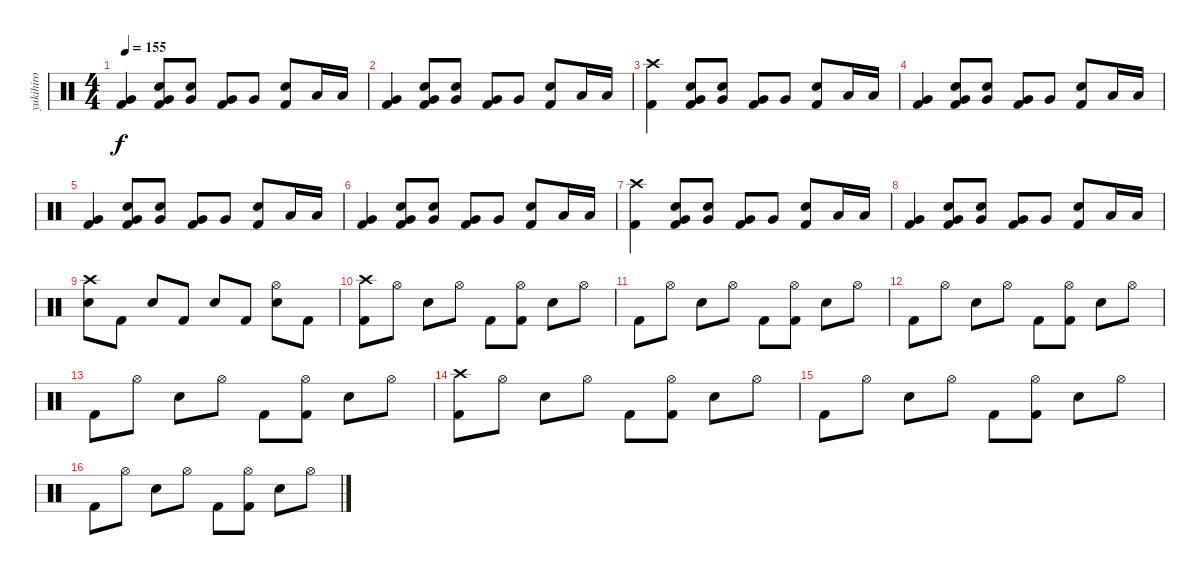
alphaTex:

\track ("yukihiro" "yukihiro") {instrument percussion}
\staff {score}
\articulation defaults
\ts (4 4)
\tempo 155
\clef neutral
\ks c
("Very Low Tom (hit)" "Kick (hit) 2").4{dy f} ("Very Low Tom (hit)" "Snare (hit) 2" "Kick (hit) 2").8 ("Very Low Tom (hit)" "Snare (hit) 2").8 ("Very Low Tom (hit)" "Kick (hit) 2").8 "Very Low Tom (hit)".8 ("Snare (hit) 2" "Kick (hit) 2").8 "Low Tom (hit)".16 "Low Floor Tom (hit)".16 |
("Very Low Tom (hit)" "Kick (hit) 2").4 ("Very Low Tom (hit)" "Snare (hit) 2" "Kick (hit) 2").8 ("Very Low Tom (hit)" "Snare (hit) 2").8 ("Very Low Tom (hit)" "Kick (hit) 2").8 "Very Low Tom (hit)".8 ("Snare (hit) 2" "Kick (hit) 2").8 "Low Tom (hit)".16 "Low Floor Tom (hit)".16 |
("Crash high (hit)" "Kick (hit) 2").4 ("Very Low Tom (hit)" "Snare (hit) 2" "Kick (hit) 2").8 ("Very Low Tom (hit)" "Snare (hit) 2").8 ("Very Low Tom (hit)" "Kick (hit) 2").8 "Very Low Tom (hit)".8 ("Snare (hit) 2" "Kick (hit) 2").8 "Low Tom (hit)".16 "Low Floor Tom (hit)".16 |
("Very Low Tom (hit)" "Kick (hit) 2").4 ("Very Low Tom (hit)" "Snare (hit) 2" "Kick (hit) 2").8 ("Very Low Tom (hit)" "Snare (hit) 2").8 ("Very Low Tom (hit)" "Kick (hit) 2").8 "Very Low Tom (hit)".8 ("Snare (hit) 2" "Kick (hit) 2").8 "Low Tom (hit)".16 "Low Floor Tom (hit)".16 |
("Very Low Tom (hit)" "Kick (hit) 2").4 ("Very Low Tom (hit)" "Snare (hit) 2" "Kick (hit) 2").8 ("Very Low Tom (hit)" "Snare (hit) 2").8 ("Very Low Tom (hit)" "Kick (hit) 2").8 "Very Low Tom (hit)".8 ("Snare (hit) 2" "Kick (hit) 2").8 "Low Tom (hit)".16 "Low Floor Tom (hit)".16 |
("Very Low Tom (hit)" "Kick (hit) 2").4 ("Very Low Tom (hit)" "Snare (hit) 2" "Kick (hit) 2").8 ("Very Low Tom (hit)" "Snare (hit) 2").8 ("Very Low Tom (hit)" "Kick (hit) 2").8 "Very Low Tom (hit)".8 ("Snare (hit) 2" "Kick (hit) 2").8 "Low Tom (hit)".16 "Low Floor Tom (hit)".16 |
("Crash high (hit)" "Kick (hit) 2").4 ("Very Low Tom (hit)" "Snare (hit) 2" "Kick (hit) 2").8 ("Very Low Tom (hit)" "Snare (hit) 2").8 ("Very Low Tom (hit)" "Kick (hit) 2").8 "Very Low Tom (hit)".8 ("Snare (hit) 2" "Kick (hit) 2").8 "Low Tom (hit)".16 "Low Floor Tom (hit)".16 |
("Very Low Tom (hit)" "Kick (hit) 2").4 ("Very Low Tom (hit)" "Snare (hit) 2" "Kick (hit) 2").8 ("Very Low Tom (hit)" "Snare (hit) 2").8 ("Very Low Tom (hit)" "Kick (hit) 2").8 "Very Low Tom (hit)".8 ("Snare (hit) 2" "Kick (hit) 2").8 "Low Tom (hit)".16 "Low Floor Tom (hit)".16 |
("Crash high (hit)" "Snare (hit) 2").8 "Kick (hit) 2".8 "Snare (hit) 2".8 "Kick (hit) 2".8 "Snare (hit) 2".8 "Kick (hit) 2".8 ("Hi-Hat (open)" "Snare (hit) 2").8 "Kick (hit) 2".8 |
("Crash high (hit)" "Kick (hit) 2").8 "Hi-Hat (open)".8 "Snare (hit) 2".8 "Hi-Hat (open)".8 "Kick (hit) 2".8 ("Hi-Hat (open)" "Kick (hit) 2").8 "Snare (hit) 2".8 "Hi-Hat (open)".8 |
"Kick (hit) 2".8 "Hi-Hat (open)".8 "Snare (hit) 2".8 "Hi-Hat (open)".8 "Kick (hit) 2".8 ("Hi-Hat (open)" "Kick (hit) 2").8 "Snare (hit) 2".8 "Hi-Hat (open)".8 |
"Kick (hit) 2".8 "Hi-Hat (open)".8 "Snare (hit) 2".8 "Hi-Hat (open)".8 "Kick (hit) 2".8 ("Hi-Hat (open)" "Kick (hit) 2").8 "Snare (hit) 2".8 "Hi-Hat (open)".8 |
"Kick (hit) 2".8 "Hi-Hat (open)".8 "Snare (hit) 2".8 "Hi-Hat (open)".8 "Kick (hit) 2".8 ("Hi-Hat (open)" "Kick (hit) 2").8 "Snare (hit) 2".8 "Hi-Hat (open)".8 |
("Crash high (hit)" "Kick (hit) 2").8 "Hi-Hat (open)".8 "Snare (hit) 2".8 "Hi-Hat (open)".8 "Kick (hit) 2".8 ("Hi-Hat (open)" "Kick (hit) 2").8 "Snare (hit) 2".8 "Hi-Hat (open)".8 |
"Kick (hit) 2".8 "Hi-Hat (open)".8 "Snare (hit) 2".8 "Hi-Hat (open)".8 "Kick (hit) 2".8 ("Hi-Hat (open)" "Kick (hit) 2").8 "Snare (hit) 2".8 "Hi-Hat (open)".8 |
"Kick (hit) 2".8 "Hi-Hat (open)".8 "Snare (hit) 2".8 "Hi-Hat (open)".8 "Kick (hit) 2".8 ("Hi-Hat (open)" "Kick (hit) 2").8 "Snare (hit) 2".8 "Hi-Hat (open)".8
